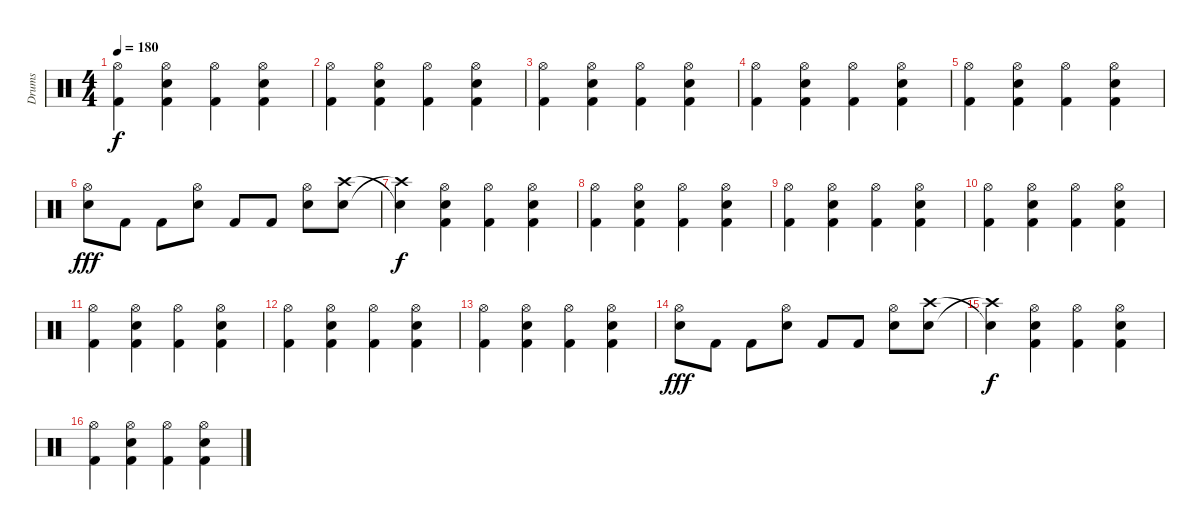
\track ("Drums" "Drums") {instrument percussion}
\staff {score}
\articulation defaults
\ts (4 4)
\tempo 180
\clef neutral
\ks c
("Hi-Hat (open)" "Kick (hit) 2").4{dy f} ("Hi-Hat (open)" "Electric Snare (hit)" "Kick (hit) 2").4 ("Hi-Hat (open)" "Kick (hit) 2").4 ("Hi-Hat (open)" "Electric Snare (hit)" "Kick (hit) 2").4 |
("Hi-Hat (open)" "Kick (hit) 2").4 ("Hi-Hat (open)" "Electric Snare (hit)" "Kick (hit) 2").4 ("Hi-Hat (open)" "Kick (hit) 2").4 ("Hi-Hat (open)" "Electric Snare (hit)" "Kick (hit) 2").4 |
("Hi-Hat (open)" "Kick (hit) 2").4 ("Hi-Hat (open)" "Electric Snare (hit)" "Kick (hit) 2").4 ("Hi-Hat (open)" "Kick (hit) 2").4 ("Hi-Hat (open)" "Electric Snare (hit)" "Kick (hit) 2").4 |
("Hi-Hat (open)" "Kick (hit) 2").4 ("Hi-Hat (open)" "Electric Snare (hit)" "Kick (hit) 2").4 ("Hi-Hat (open)" "Kick (hit) 2").4 ("Hi-Hat (open)" "Electric Snare (hit)" "Kick (hit) 2").4 |
("Hi-Hat (open)" "Kick (hit) 2").4 ("Hi-Hat (open)" "Electric Snare (hit)" "Kick (hit) 2").4 ("Hi-Hat (open)" "Kick (hit) 2").4 ("Hi-Hat (open)" "Electric Snare (hit)" "Kick (hit) 2").4 |
("Hi-Hat (open)" "Electric Snare (hit)").8{dy fff} "Kick (hit) 2".8 "Kick (hit) 2".8 ("Hi-Hat (open)" "Electric Snare (hit)").8 "Kick (hit) 2".8 "Kick (hit) 2".8 ("Hi-Hat (open)" "Electric Snare (hit)").8 ("Crash high (hit)" "Electric Snare (hit)").8 |
("Snare (hit)"{t} "Crash high (hit)"{t}).4{dy f} ("Hi-Hat (open)" "Electric Snare (hit)" "Kick (hit) 2").4 ("Hi-Hat (open)" "Kick (hit) 2").4 ("Hi-Hat (open)" "Electric Snare (hit)" "Kick (hit) 2").4 |
("Hi-Hat (open)" "Kick (hit) 2").4 ("Hi-Hat (open)" "Electric Snare (hit)" "Kick (hit) 2").4 ("Hi-Hat (open)" "Kick (hit) 2").4 ("Hi-Hat (open)" "Electric Snare (hit)" "Kick (hit) 2").4 |
("Hi-Hat (open)" "Kick (hit) 2").4 ("Hi-Hat (open)" "Electric Snare (hit)" "Kick (hit) 2").4 ("Hi-Hat (open)" "Kick (hit) 2").4 ("Hi-Hat (open)" "Electric Snare (hit)" "Kick (hit) 2").4 |
("Hi-Hat (open)" "Kick (hit) 2").4 ("Hi-Hat (open)" "Electric Snare (hit)" "Kick (hit) 2").4 ("Hi-Hat (open)" "Kick (hit) 2").4 ("Hi-Hat (open)" "Electric Snare (hit)" "Kick (hit) 2").4 |
("Hi-Hat (open)" "Kick (hit) 2").4 ("Hi-Hat (open)" "Electric Snare (hit)" "Kick (hit) 2").4 ("Hi-Hat (open)" "Kick (hit) 2").4 ("Hi-Hat (open)" "Electric Snare (hit)" "Kick (hit) 2").4 |
("Hi-Hat (open)" "Kick (hit) 2").4 ("Hi-Hat (open)" "Electric Snare (hit)" "Kick (hit) 2").4 ("Hi-Hat (open)" "Kick (hit) 2").4 ("Hi-Hat (open)" "Electric Snare (hit)" "Kick (hit) 2").4 |
("Hi-Hat (open)" "Kick (hit) 2").4 ("Hi-Hat (open)" "Electric Snare (hit)" "Kick (hit) 2").4 ("Hi-Hat (open)" "Kick (hit) 2").4 ("Hi-Hat (open)" "Electric Snare (hit)" "Kick (hit) 2").4 |
("Hi-Hat (open)" "Electric Snare (hit)").8{dy fff} "Kick (hit) 2".8 "Kick (hit) 2".8 ("Hi-Hat (open)" "Electric Snare (hit)").8 "Kick (hit) 2".8 "Kick (hit) 2".8 ("Hi-Hat (open)" "Electric Snare (hit)").8 ("Crash high (hit)" "Electric Snare (hit)").8 |
("Snare (hit)"{t} "Crash high (hit)"{t}).4{dy f} ("Hi-Hat (open)" "Electric Snare (hit)" "Kick (hit) 2").4 ("Hi-Hat (open)" "Kick (hit) 2").4 ("Hi-Hat (open)" "Electric Snare (hit)" "Kick (hit) 2").4 |
("Hi-Hat (open)" "Kick (hit) 2").4 ("Hi-Hat (open)" "Electric Snare (hit)" "Kick (hit) 2").4 ("Hi-Hat (open)" "Kick (hit) 2").4 ("Hi-Hat (open)" "Electric Snare (hit)" "Kick (hit) 2").4
